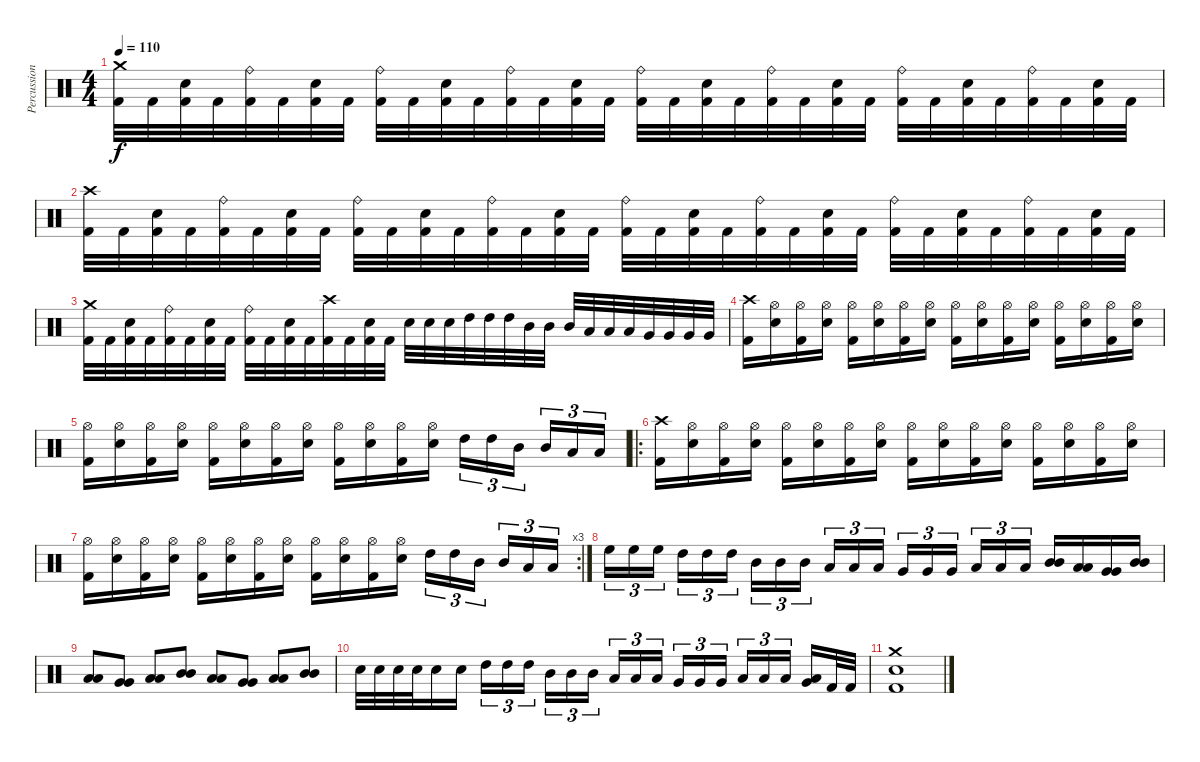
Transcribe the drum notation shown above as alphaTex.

\track ("Percussion" "Percussion") {instrument percussion}
\staff {score}
\articulation defaults
\ts (4 4)
\tempo 110
\clef neutral
\ks c
("Crash medium (hit)" "Kick (hit) 2").32{dy f} "Kick (hit) 2".32 ("Electric Snare (hit)" "Kick (hit) 2").32 "Kick (hit) 2".32 ("Ride (bell)" "Kick (hit) 2").32 "Kick (hit) 2".32 ("Electric Snare (hit)" "Kick (hit) 2").32 "Kick (hit) 2".32 ("Ride (bell)" "Kick (hit) 2").32 "Kick (hit) 2".32 ("Electric Snare (hit)" "Kick (hit) 2").32 "Kick (hit) 2".32 ("Ride (bell)" "Kick (hit) 2").32 "Kick (hit) 2".32 ("Electric Snare (hit)" "Kick (hit) 2").32 "Kick (hit) 2".32 ("Ride (bell)" "Kick (hit) 2").32 "Kick (hit) 2".32 ("Electric Snare (hit)" "Kick (hit) 2").32 "Kick (hit) 2".32 ("Ride (bell)" "Kick (hit) 2").32 "Kick (hit) 2".32 ("Electric Snare (hit)" "Kick (hit) 2").32 "Kick (hit) 2".32 ("Ride (bell)" "Kick (hit) 2").32 "Kick (hit) 2".32 ("Electric Snare (hit)" "Kick (hit) 2").32 "Kick (hit) 2".32 ("Ride (bell)" "Kick (hit) 2").32 "Kick (hit) 2".32 ("Electric Snare (hit)" "Kick (hit) 2").32 "Kick (hit) 2".32 |
("Crash high (hit)" "Kick (hit) 2").32 "Kick (hit) 2".32 ("Electric Snare (hit)" "Kick (hit) 2").32 "Kick (hit) 2".32 ("Ride (bell)" "Kick (hit) 2").32 "Kick (hit) 2".32 ("Electric Snare (hit)" "Kick (hit) 2").32 "Kick (hit) 2".32 ("Ride (bell)" "Kick (hit) 2").32 "Kick (hit) 2".32 ("Electric Snare (hit)" "Kick (hit) 2").32 "Kick (hit) 2".32 ("Ride (bell)" "Kick (hit) 2").32 "Kick (hit) 2".32 ("Electric Snare (hit)" "Kick (hit) 2").32 "Kick (hit) 2".32 ("Ride (bell)" "Kick (hit) 2").32 "Kick (hit) 2".32 ("Electric Snare (hit)" "Kick (hit) 2").32 "Kick (hit) 2".32 ("Ride (bell)" "Kick (hit) 2").32 "Kick (hit) 2".32 ("Electric Snare (hit)" "Kick (hit) 2").32 "Kick (hit) 2".32 ("Ride (bell)" "Kick (hit) 2").32 "Kick (hit) 2".32 ("Electric Snare (hit)" "Kick (hit) 2").32 "Kick (hit) 2".32 ("Ride (bell)" "Kick (hit) 2").32 "Kick (hit) 2".32 ("Electric Snare (hit)" "Kick (hit) 2").32 "Kick (hit) 2".32 |
("Crash medium (hit)" "Kick (hit) 2").32 "Kick (hit) 2".32 ("Electric Snare (hit)" "Kick (hit) 2").32 "Kick (hit) 2".32 ("Ride (bell)" "Kick (hit) 2").32 "Kick (hit) 2".32 ("Electric Snare (hit)" "Kick (hit) 2").32 "Kick (hit) 2".32 ("Ride (bell)" "Kick (hit) 2").32 "Kick (hit) 2".32 ("Electric Snare (hit)" "Kick (hit) 2").32 "Kick (hit) 2".32 ("Crash high (hit)" "Kick (hit) 2").32 "Kick (hit) 2".32 ("Electric Snare (hit)" "Kick (hit) 2").32 "Kick (hit) 2".32 "Electric Snare (hit)".32 "Electric Snare (hit)".32 "Electric Snare (hit)".32 "High Tom (hit)".32 "High Tom (hit)".32 "High Tom (hit)".32 "Mid Tom (hit)".32 "Mid Tom (hit)".32 "Mid Tom (hit)".32 "Low Tom (hit)".32 "Low Tom (hit)".32 "Low Tom (hit)".32 "Very Low Tom (hit)".32 "Very Low Tom (hit)".32 "Very Low Tom (hit)".32 "Very Low Tom (hit)".32 |
("Crash high (hit)" "Kick (hit) 2").16 ("Hi-Hat (open)" "Electric Snare (hit)").16 ("Hi-Hat (open)" "Kick (hit) 2").16 ("Hi-Hat (open)" "Electric Snare (hit)").16 ("Hi-Hat (open)" "Kick (hit) 2").16 ("Hi-Hat (open)" "Electric Snare (hit)").16 ("Hi-Hat (open)" "Kick (hit) 2").16 ("Hi-Hat (open)" "Electric Snare (hit)").16 ("Hi-Hat (open)" "Kick (hit) 2").16 ("Hi-Hat (open)" "Electric Snare (hit)").16 ("Hi-Hat (open)" "Kick (hit) 2").16 ("Hi-Hat (open)" "Electric Snare (hit)").16 ("Hi-Hat (open)" "Kick (hit) 2").16 ("Hi-Hat (open)" "Electric Snare (hit)").16 ("Hi-Hat (open)" "Kick (hit) 2").16 ("Hi-Hat (open)" "Electric Snare (hit)").16 |
("Hi-Hat (open)" "Kick (hit) 2").16 ("Hi-Hat (open)" "Electric Snare (hit)").16 ("Hi-Hat (open)" "Kick (hit) 2").16 ("Hi-Hat (open)" "Electric Snare (hit)").16 ("Hi-Hat (open)" "Kick (hit) 2").16 ("Hi-Hat (open)" "Electric Snare (hit)").16 ("Hi-Hat (open)" "Kick (hit) 2").16 ("Hi-Hat (open)" "Electric Snare (hit)").16 ("Hi-Hat (open)" "Kick (hit) 2").16 ("Hi-Hat (open)" "Electric Snare (hit)").16 ("Hi-Hat (open)" "Kick (hit) 2").16 ("Hi-Hat (open)" "Electric Snare (hit)").16 "High Tom (hit)".16{tu (3 2)} "High Tom (hit)".16{tu (3 2)} "Mid Tom (hit)".16{tu (3 2)} "Mid Tom (hit)".16{tu (3 2)} "Low Tom (hit)".16{tu (3 2)} "Low Tom (hit)".16{tu (3 2)} |
\ro
("Crash high (hit)" "Kick (hit) 2").16 ("Hi-Hat (open)" "Electric Snare (hit)").16 ("Hi-Hat (open)" "Kick (hit) 2").16 ("Hi-Hat (open)" "Electric Snare (hit)").16 ("Hi-Hat (open)" "Kick (hit) 2").16 ("Hi-Hat (open)" "Electric Snare (hit)").16 ("Hi-Hat (open)" "Kick (hit) 2").16 ("Hi-Hat (open)" "Electric Snare (hit)").16 ("Hi-Hat (open)" "Kick (hit) 2").16 ("Hi-Hat (open)" "Electric Snare (hit)").16 ("Hi-Hat (open)" "Kick (hit) 2").16 ("Hi-Hat (open)" "Electric Snare (hit)").16 ("Hi-Hat (open)" "Kick (hit) 2").16 ("Hi-Hat (open)" "Electric Snare (hit)").16 ("Hi-Hat (open)" "Kick (hit) 2").16 ("Hi-Hat (open)" "Electric Snare (hit)").16 |
\rc 3
("Hi-Hat (open)" "Kick (hit) 2").16 ("Hi-Hat (open)" "Electric Snare (hit)").16 ("Hi-Hat (open)" "Kick (hit) 2").16 ("Hi-Hat (open)" "Electric Snare (hit)").16 ("Hi-Hat (open)" "Kick (hit) 2").16 ("Hi-Hat (open)" "Electric Snare (hit)").16 ("Hi-Hat (open)" "Kick (hit) 2").16 ("Hi-Hat (open)" "Electric Snare (hit)").16 ("Hi-Hat (open)" "Kick (hit) 2").16 ("Hi-Hat (open)" "Electric Snare (hit)").16 ("Hi-Hat (open)" "Kick (hit) 2").16 ("Hi-Hat (open)" "Electric Snare (hit)").16 "High Tom (hit)".16{tu (3 2)} "High Tom (hit)".16{tu (3 2)} "Mid Tom (hit)".16{tu (3 2)} "Mid Tom (hit)".16{tu (3 2)} "Low Tom (hit)".16{tu (3 2)} "Low Tom (hit)".16{tu (3 2)} |
"High Floor Tom (hit)".16{tu (3 2)} "High Floor Tom (hit)".16{tu (3 2)} "High Floor Tom (hit)".16{tu (3 2)} "High Tom (hit)".16{tu (3 2)} "High Tom (hit)".16{tu (3 2)} "High Tom (hit)".16{tu (3 2)} "Mid Tom (hit)".16{tu (3 2)} "Mid Tom (hit)".16{tu (3 2)} "Mid Tom (hit)".16{tu (3 2)} "Low Tom (hit)".16{tu (3 2)} "Low Tom (hit)".16{tu (3 2)} "Low Tom (hit)".16{tu (3 2)} "Very Low Tom (hit)".16{tu (3 2)} "Very Low Tom (hit)".16{tu (3 2)} "Very Low Tom (hit)".16{tu (3 2)} "Low Floor Tom (hit)".16{tu (3 2)} "Low Floor Tom (hit)".16{tu (3 2)} "Low Floor Tom (hit)".16{tu (3 2)} ("Mid Tom (hit)" "Mid Tom (hit)").16 ("Low Tom (hit)" "Low Tom (hit)").16 ("Very Low Tom (hit)" "Very Low Tom (hit)").16 ("Mid Tom (hit)" "Mid Tom (hit)").16 |
("Low Tom (hit)" "Low Tom (hit)").8 ("Very Low Tom (hit)" "Very Low Tom (hit)").8 ("Low Tom (hit)" "Low Tom (hit)").8 ("Mid Tom (hit)" "Mid Tom (hit)").8 ("Low Tom (hit)" "Low Tom (hit)").8 ("Very Low Tom (hit)" "Very Low Tom (hit)").8 ("Low Tom (hit)" "Low Tom (hit)").8 ("Mid Tom (hit)" "Mid Tom (hit)").8 |
"Electric Snare (hit)".32 "Electric Snare (hit)".32 "Electric Snare (hit)".32 "Electric Snare (hit)".32 "Electric Snare (hit)".16 "Electric Snare (hit)".16 "High Tom (hit)".16{tu (3 2)} "High Tom (hit)".16{tu (3 2)} "High Tom (hit)".16{tu (3 2)} "Mid Tom (hit)".16{tu (3 2)} "Mid Tom (hit)".16{tu (3 2)} "Mid Tom (hit)".16{tu (3 2)} "Low Tom (hit)".16{tu (3 2)} "Low Tom (hit)".16{tu (3 2)} "Low Tom (hit)".16{tu (3 2)} "Very Low Tom (hit)".16{tu (3 2)} "Very Low Tom (hit)".16{tu (3 2)} "Very Low Tom (hit)".16{tu (3 2)} "Low Floor Tom (hit)".16{tu (3 2)} "Low Floor Tom (hit)".16{tu (3 2)} "Low Floor Tom (hit)".16{tu (3 2)} ("Very Low Tom (hit)" "Low Floor Tom (hit)").16 "Kick (hit) 2".32 "Kick (hit) 2".32 |
("Crash medium (hit)" "Electric Snare (hit)" "Kick (hit) 2").1
